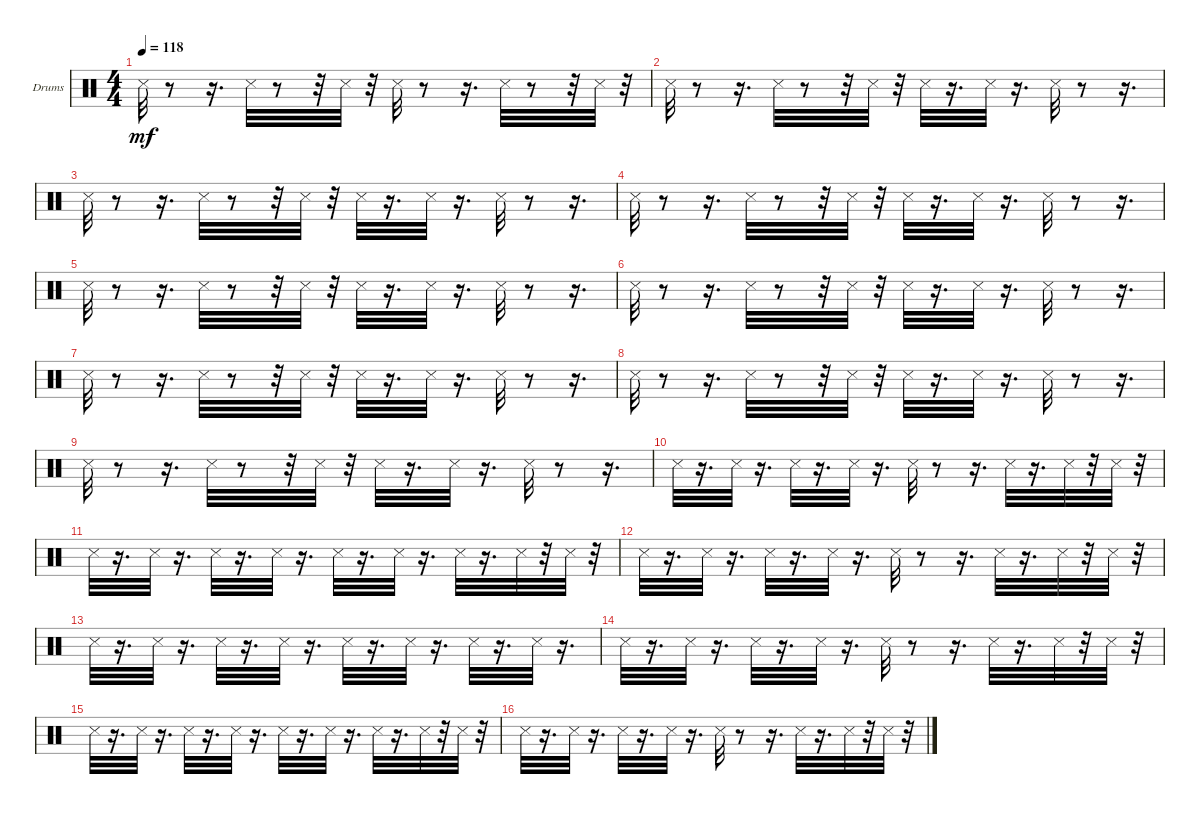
\bracketExtendMode groupsimilarinstruments
\firstSystemTrackNameOrientation horizontal
\otherSystemsTrackNameOrientation horizontal
\track ("Drums" "Drums") {instrument percussion}
\staff {score}
\articulation defaults
\ts (4 4)
\tempo 118
\clef neutral
\ks c "Snare (side stick) 3".32{dy mf}
r.8 r.16{d} "Snare (side stick) 3".32 r.8 r.32 "Snare (side stick) 3".32 r.32 "Snare (side stick) 3".32 r.8 r.16{d} "Snare (side stick) 3".32 r.8 r.32 "Snare (side stick) 3".32 r.32 |
"Snare (side stick) 3".32 r.8 r.16{d} "Snare (side stick) 3".32 r.8 r.32 "Snare (side stick) 3".32 r.32 "Snare (side stick) 3".32 r.16{d} "Snare (side stick) 3".32 r.16{d} "Snare (side stick) 3".32 r.8 r.16{d} |
"Snare (side stick) 3".32 r.8 r.16{d} "Snare (side stick) 3".32 r.8 r.32 "Snare (side stick) 3".32 r.32 "Snare (side stick) 3".32 r.16{d} "Snare (side stick) 3".32 r.16{d} "Snare (side stick) 3".32 r.8 r.16{d} |
"Snare (side stick) 3".32 r.8 r.16{d} "Snare (side stick) 3".32 r.8 r.32 "Snare (side stick) 3".32 r.32 "Snare (side stick) 3".32 r.16{d} "Snare (side stick) 3".32 r.16{d} "Snare (side stick) 3".32 r.8 r.16{d} |
"Snare (side stick) 3".32 r.8 r.16{d} "Snare (side stick) 3".32 r.8 r.32 "Snare (side stick) 3".32 r.32 "Snare (side stick) 3".32 r.16{d} "Snare (side stick) 3".32 r.16{d} "Snare (side stick) 3".32 r.8 r.16{d} |
"Snare (side stick) 3".32 r.8 r.16{d} "Snare (side stick) 3".32 r.8 r.32 "Snare (side stick) 3".32 r.32 "Snare (side stick) 3".32 r.16{d} "Snare (side stick) 3".32 r.16{d} "Snare (side stick) 3".32 r.8 r.16{d} |
"Snare (side stick) 3".32 r.8 r.16{d} "Snare (side stick) 3".32 r.8 r.32 "Snare (side stick) 3".32 r.32 "Snare (side stick) 3".32 r.16{d} "Snare (side stick) 3".32 r.16{d} "Snare (side stick) 3".32 r.8 r.16{d} |
"Snare (side stick) 3".32 r.8 r.16{d} "Snare (side stick) 3".32 r.8 r.32 "Snare (side stick) 3".32 r.32 "Snare (side stick) 3".32 r.16{d} "Snare (side stick) 3".32 r.16{d} "Snare (side stick) 3".32 r.8 r.16{d} |
"Snare (side stick) 3".32 r.8 r.16{d} "Snare (side stick) 3".32 r.8 r.32 "Snare (side stick) 3".32 r.32 "Snare (side stick) 3".32 r.16{d} "Snare (side stick) 3".32 r.16{d} "Snare (side stick) 3".32 r.8 r.16{d} |
"Snare (side stick) 3".32 r.16{d} "Snare (side stick) 3".32 r.16{d} "Snare (side stick) 3".32 r.16{d} "Snare (side stick) 3".32 r.16{d} "Snare (side stick) 3".32 r.8 r.16{d} "Snare (side stick) 3".32 r.16{d} "Snare (side stick) 3".32 r.32 "Snare (side stick) 3".32 r.32 |
"Snare (side stick) 3".32 r.16{d} "Snare (side stick) 3".32 r.16{d} "Snare (side stick) 3".32 r.16{d} "Snare (side stick) 3".32 r.16{d} "Snare (side stick) 3".32 r.16{d} "Snare (side stick) 3".32 r.16{d} "Snare (side stick) 3".32 r.16{d} "Snare (side stick) 3".32 r.32 "Snare (side stick) 3".32 r.32 |
"Snare (side stick) 3".32 r.16{d} "Snare (side stick) 3".32 r.16{d} "Snare (side stick) 3".32 r.16{d} "Snare (side stick) 3".32 r.16{d} "Snare (side stick) 3".32 r.8 r.16{d} "Snare (side stick) 3".32 r.16{d} "Snare (side stick) 3".32 r.32 "Snare (side stick) 3".32 r.32 |
"Snare (side stick) 3".32 r.16{d} "Snare (side stick) 3".32 r.16{d} "Snare (side stick) 3".32 r.16{d} "Snare (side stick) 3".32 r.16{d} "Snare (side stick) 3".32 r.16{d} "Snare (side stick) 3".32 r.16{d} "Snare (side stick) 3".32 r.16{d} "Snare (side stick) 3".32 r.16{d} |
"Snare (side stick) 3".32 r.16{d} "Snare (side stick) 3".32 r.16{d} "Snare (side stick) 3".32 r.16{d} "Snare (side stick) 3".32 r.16{d} "Snare (side stick) 3".32 r.8 r.16{d} "Snare (side stick) 3".32 r.16{d} "Snare (side stick) 3".32 r.32 "Snare (side stick) 3".32 r.32 |
"Snare (side stick) 3".32 r.16{d} "Snare (side stick) 3".32 r.16{d} "Snare (side stick) 3".32 r.16{d} "Snare (side stick) 3".32 r.16{d} "Snare (side stick) 3".32 r.16{d} "Snare (side stick) 3".32 r.16{d} "Snare (side stick) 3".32 r.16{d} "Snare (side stick) 3".32 r.32 "Snare (side stick) 3".32 r.32 |
"Snare (side stick) 3".32 r.16{d} "Snare (side stick) 3".32 r.16{d} "Snare (side stick) 3".32 r.16{d} "Snare (side stick) 3".32 r.16{d} "Snare (side stick) 3".32 r.8 r.16{d} "Snare (side stick) 3".32 r.16{d} "Snare (side stick) 3".32 r.32 "Snare (side stick) 3".32 r.32
